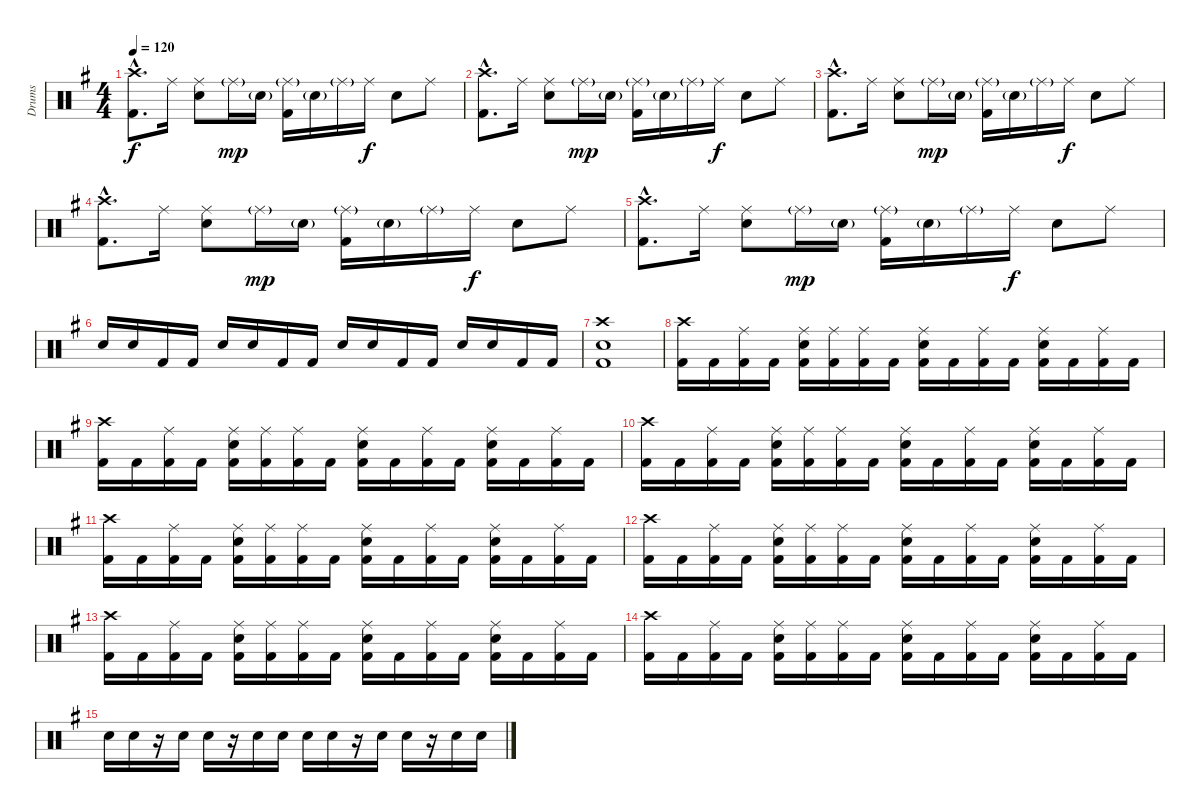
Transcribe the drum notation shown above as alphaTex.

\track ("Drums" "Drums") {instrument percussion}
\staff {score}
\articulation defaults
\ts (4 4)
\tempo 120
\clef neutral
\ks eminor
("Crash high (hit)"{hac} "Kick (hit) 2"{hac}).8{d dy f} "Ride (middle)".16 ("Ride (middle)" "Snare (hit) 2").8 "Ride (middle)"{g}.16{dy mp} "Snare (hit) 2"{g}.16 ("Ride (middle)"{g} "Kick (hit) 2").16 "Snare (hit) 2"{g}.16 "Ride (middle)"{g}.16 "Ride (middle)".16{dy f} "Snare (hit) 2".8 "Ride (middle)".8 |
("Crash high (hit)"{hac} "Kick (hit) 2"{hac}).8{d} "Ride (middle)".16 ("Ride (middle)" "Snare (hit) 2").8 "Ride (middle)"{g}.16{dy mp} "Snare (hit) 2"{g}.16 ("Ride (middle)"{g} "Kick (hit) 2").16 "Snare (hit) 2"{g}.16 "Ride (middle)"{g}.16 "Ride (middle)".16{dy f} "Snare (hit) 2".8 "Ride (middle)".8 |
("Crash high (hit)"{hac} "Kick (hit) 2"{hac}).8{d} "Ride (middle)".16 ("Ride (middle)" "Snare (hit) 2").8 "Ride (middle)"{g}.16{dy mp} "Snare (hit) 2"{g}.16 ("Ride (middle)"{g} "Kick (hit) 2").16 "Snare (hit) 2"{g}.16 "Ride (middle)"{g}.16 "Ride (middle)".16{dy f} "Snare (hit) 2".8 "Ride (middle)".8 |
("Crash high (hit)"{hac} "Kick (hit) 2"{hac}).8{d} "Ride (middle)".16 ("Ride (middle)" "Snare (hit) 2").8 "Ride (middle)"{g}.16{dy mp} "Snare (hit) 2"{g}.16 ("Ride (middle)"{g} "Kick (hit) 2").16 "Snare (hit) 2"{g}.16 "Ride (middle)"{g}.16 "Ride (middle)".16{dy f} "Snare (hit) 2".8 "Ride (middle)".8 |
("Crash high (hit)"{hac} "Kick (hit) 2"{hac}).8{d} "Ride (middle)".16 ("Ride (middle)" "Snare (hit) 2").8 "Ride (middle)"{g}.16{dy mp} "Snare (hit) 2"{g}.16 ("Ride (middle)"{g} "Kick (hit) 2").16 "Snare (hit) 2"{g}.16 "Ride (middle)"{g}.16 "Ride (middle)".16{dy f} "Snare (hit) 2".8 "Ride (middle)".8 |
"Snare (hit) 2".16 "Snare (hit) 2".16 "Kick (hit) 2".16 "Kick (hit) 2".16 "Snare (hit) 2".16 "Snare (hit) 2".16 "Kick (hit) 2".16 "Kick (hit) 2".16 "Snare (hit) 2".16 "Snare (hit) 2".16 "Kick (hit) 2".16 "Kick (hit) 2".16 "Snare (hit) 2".16 "Snare (hit) 2".16 "Kick (hit) 2".16 "Kick (hit) 2".16 |
("Crash high (hit)" "Snare (hit) 2" "Kick (hit) 2").1 |
("Crash high (hit)" "Kick (hit) 2").16 "Kick (hit) 2".16 ("Ride (middle)" "Kick (hit) 2").16 "Kick (hit) 2".16 ("Ride (middle)" "Snare (hit) 2" "Kick (hit) 2").16 ("Ride (middle)" "Kick (hit) 2").16 ("Ride (middle)" "Kick (hit) 2").16 "Kick (hit) 2".16 ("Ride (middle)" "Snare (hit) 2" "Kick (hit) 2").16 "Kick (hit) 2".16 ("Ride (middle)" "Kick (hit) 2").16 "Kick (hit) 2".16 ("Ride (middle)" "Snare (hit) 2" "Kick (hit) 2").16 "Kick (hit) 2".16 ("Ride (middle)" "Kick (hit) 2").16 "Kick (hit) 2".16 |
("Crash high (hit)" "Kick (hit) 2").16 "Kick (hit) 2".16 ("Ride (middle)" "Kick (hit) 2").16 "Kick (hit) 2".16 ("Ride (middle)" "Snare (hit) 2" "Kick (hit) 2").16 ("Ride (middle)" "Kick (hit) 2").16 ("Ride (middle)" "Kick (hit) 2").16 "Kick (hit) 2".16 ("Ride (middle)" "Snare (hit) 2" "Kick (hit) 2").16 "Kick (hit) 2".16 ("Ride (middle)" "Kick (hit) 2").16 "Kick (hit) 2".16 ("Ride (middle)" "Snare (hit) 2" "Kick (hit) 2").16 "Kick (hit) 2".16 ("Ride (middle)" "Kick (hit) 2").16 "Kick (hit) 2".16 |
("Crash high (hit)" "Kick (hit) 2").16 "Kick (hit) 2".16 ("Ride (middle)" "Kick (hit) 2").16 "Kick (hit) 2".16 ("Ride (middle)" "Snare (hit) 2" "Kick (hit) 2").16 ("Ride (middle)" "Kick (hit) 2").16 ("Ride (middle)" "Kick (hit) 2").16 "Kick (hit) 2".16 ("Ride (middle)" "Snare (hit) 2" "Kick (hit) 2").16 "Kick (hit) 2".16 ("Ride (middle)" "Kick (hit) 2").16 "Kick (hit) 2".16 ("Ride (middle)" "Snare (hit) 2" "Kick (hit) 2").16 "Kick (hit) 2".16 ("Ride (middle)" "Kick (hit) 2").16 "Kick (hit) 2".16 |
("Crash high (hit)" "Kick (hit) 2").16 "Kick (hit) 2".16 ("Ride (middle)" "Kick (hit) 2").16 "Kick (hit) 2".16 ("Ride (middle)" "Snare (hit) 2" "Kick (hit) 2").16 ("Ride (middle)" "Kick (hit) 2").16 ("Ride (middle)" "Kick (hit) 2").16 "Kick (hit) 2".16 ("Ride (middle)" "Snare (hit) 2" "Kick (hit) 2").16 "Kick (hit) 2".16 ("Ride (middle)" "Kick (hit) 2").16 "Kick (hit) 2".16 ("Ride (middle)" "Snare (hit) 2" "Kick (hit) 2").16 "Kick (hit) 2".16 ("Ride (middle)" "Kick (hit) 2").16 "Kick (hit) 2".16 |
("Crash high (hit)" "Kick (hit) 2").16 "Kick (hit) 2".16 ("Ride (middle)" "Kick (hit) 2").16 "Kick (hit) 2".16 ("Ride (middle)" "Snare (hit) 2" "Kick (hit) 2").16 ("Ride (middle)" "Kick (hit) 2").16 ("Ride (middle)" "Kick (hit) 2").16 "Kick (hit) 2".16 ("Ride (middle)" "Snare (hit) 2" "Kick (hit) 2").16 "Kick (hit) 2".16 ("Ride (middle)" "Kick (hit) 2").16 "Kick (hit) 2".16 ("Ride (middle)" "Snare (hit) 2" "Kick (hit) 2").16 "Kick (hit) 2".16 ("Ride (middle)" "Kick (hit) 2").16 "Kick (hit) 2".16 |
("Crash high (hit)" "Kick (hit) 2").16 "Kick (hit) 2".16 ("Ride (middle)" "Kick (hit) 2").16 "Kick (hit) 2".16 ("Ride (middle)" "Snare (hit) 2" "Kick (hit) 2").16 ("Ride (middle)" "Kick (hit) 2").16 ("Ride (middle)" "Kick (hit) 2").16 "Kick (hit) 2".16 ("Ride (middle)" "Snare (hit) 2" "Kick (hit) 2").16 "Kick (hit) 2".16 ("Ride (middle)" "Kick (hit) 2").16 "Kick (hit) 2".16 ("Ride (middle)" "Snare (hit) 2" "Kick (hit) 2").16 "Kick (hit) 2".16 ("Ride (middle)" "Kick (hit) 2").16 "Kick (hit) 2".16 |
("Crash high (hit)" "Kick (hit) 2").16 "Kick (hit) 2".16 ("Ride (middle)" "Kick (hit) 2").16 "Kick (hit) 2".16 ("Ride (middle)" "Snare (hit) 2" "Kick (hit) 2").16 ("Ride (middle)" "Kick (hit) 2").16 ("Ride (middle)" "Kick (hit) 2").16 "Kick (hit) 2".16 ("Ride (middle)" "Snare (hit) 2" "Kick (hit) 2").16 "Kick (hit) 2".16 ("Ride (middle)" "Kick (hit) 2").16 "Kick (hit) 2".16 ("Ride (middle)" "Snare (hit) 2" "Kick (hit) 2").16 "Kick (hit) 2".16 ("Ride (middle)" "Kick (hit) 2").16 "Kick (hit) 2".16 |
"Snare (hit) 2".16 "Snare (hit) 2".16 r.16 "Snare (hit) 2".16 "Snare (hit) 2".16 r.16 "Snare (hit) 2".16 "Snare (hit) 2".16 "Snare (hit) 2".16 "Snare (hit) 2".16 r.16 "Snare (hit) 2".16 "Snare (hit) 2".16 r.16 "Snare (hit) 2".16 "Snare (hit) 2".16
